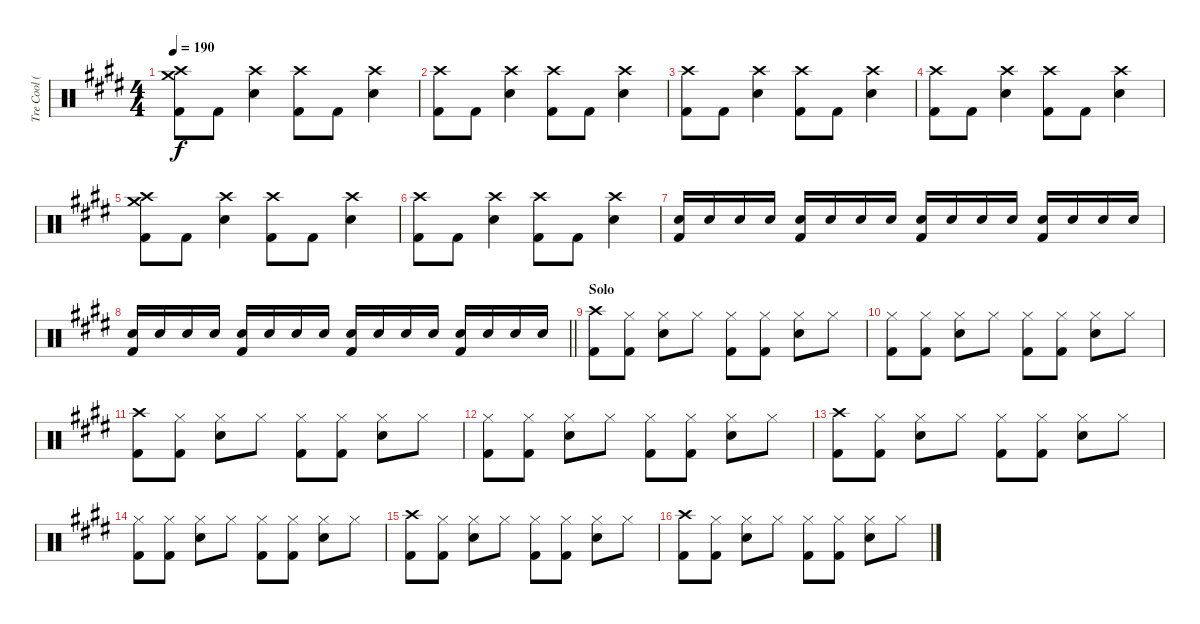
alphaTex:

\track ("Tre Cool (Drums)" "Tre Cool (") {instrument percussion}
\staff {score}
\articulation defaults
\ts (4 4)
\tempo 190
\clef neutral
\ks e
("Kick (hit) 2" "Crash medium (hit)" "Crash high (hit)").8{dy f} "Kick (hit) 2".8 ("Electric Snare (hit)" "Crash high (hit)").4 ("Kick (hit) 2" "Crash high (hit)").8 "Kick (hit) 2".8 ("Electric Snare (hit)" "Crash high (hit)").4 |
("Kick (hit) 2" "Crash high (hit)").8 "Kick (hit) 2".8 ("Electric Snare (hit)" "Crash high (hit)").4 ("Kick (hit) 2" "Crash high (hit)").8 "Kick (hit) 2".8 ("Electric Snare (hit)" "Crash high (hit)").4 |
("Kick (hit) 2" "Crash high (hit)").8 "Kick (hit) 2".8 ("Electric Snare (hit)" "Crash high (hit)").4 ("Kick (hit) 2" "Crash high (hit)").8 "Kick (hit) 2".8 ("Electric Snare (hit)" "Crash high (hit)").4 |
("Kick (hit) 2" "Crash high (hit)").8 "Kick (hit) 2".8 ("Electric Snare (hit)" "Crash high (hit)").4 ("Kick (hit) 2" "Crash high (hit)").8 "Kick (hit) 2".8 ("Electric Snare (hit)" "Crash high (hit)").4 |
("Kick (hit) 2" "Crash medium (hit)" "Crash high (hit)").8 "Kick (hit) 2".8 ("Electric Snare (hit)" "Crash high (hit)").4 ("Kick (hit) 2" "Crash high (hit)").8 "Kick (hit) 2".8 ("Electric Snare (hit)" "Crash high (hit)").4 |
("Kick (hit) 2" "Crash high (hit)").8 "Kick (hit) 2".8 ("Electric Snare (hit)" "Crash high (hit)").4 ("Kick (hit) 2" "Crash high (hit)").8 "Kick (hit) 2".8 ("Electric Snare (hit)" "Crash high (hit)").4 |
("Kick (hit) 2" "Electric Snare (hit)").16 "Electric Snare (hit)".16 "Electric Snare (hit)".16 "Electric Snare (hit)".16 ("Kick (hit) 2" "Electric Snare (hit)").16 "Electric Snare (hit)".16 "Electric Snare (hit)".16 "Electric Snare (hit)".16 ("Kick (hit) 2" "Electric Snare (hit)").16 "Electric Snare (hit)".16 "Electric Snare (hit)".16 "Electric Snare (hit)".16 ("Kick (hit) 2" "Electric Snare (hit)").16 "Electric Snare (hit)".16 "Electric Snare (hit)".16 "Electric Snare (hit)".16 |
\barLineRight lightlight
("Kick (hit) 2" "Electric Snare (hit)").16 "Electric Snare (hit)".16 "Electric Snare (hit)".16 "Electric Snare (hit)".16 ("Kick (hit) 2" "Electric Snare (hit)").16 "Electric Snare (hit)".16 "Electric Snare (hit)".16 "Electric Snare (hit)".16 ("Kick (hit) 2" "Electric Snare (hit)").16 "Electric Snare (hit)".16 "Electric Snare (hit)".16 "Electric Snare (hit)".16 ("Kick (hit) 2" "Electric Snare (hit)").16 "Electric Snare (hit)".16 "Electric Snare (hit)".16 "Electric Snare (hit)".16 |
\section ("" "Solo")
("Crash high (hit)" "Kick (hit) 2").8 ("Hi-Hat (closed)" "Kick (hit) 2").8 ("Hi-Hat (closed)" "Electric Snare (hit)").8 "Hi-Hat (closed)".8 ("Hi-Hat (closed)" "Kick (hit) 2").8 ("Hi-Hat (closed)" "Kick (hit) 2").8 ("Hi-Hat (closed)" "Electric Snare (hit)").8 "Hi-Hat (closed)".8 |
("Hi-Hat (closed)" "Kick (hit) 2").8 ("Hi-Hat (closed)" "Kick (hit) 2").8 ("Hi-Hat (closed)" "Electric Snare (hit)").8 "Hi-Hat (closed)".8 ("Hi-Hat (closed)" "Kick (hit) 2").8 ("Hi-Hat (closed)" "Kick (hit) 2").8 ("Hi-Hat (closed)" "Electric Snare (hit)").8 "Hi-Hat (closed)".8 |
("Crash high (hit)" "Kick (hit) 2").8 ("Hi-Hat (closed)" "Kick (hit) 2").8 ("Hi-Hat (closed)" "Electric Snare (hit)").8 "Hi-Hat (closed)".8 ("Hi-Hat (closed)" "Kick (hit) 2").8 ("Hi-Hat (closed)" "Kick (hit) 2").8 ("Hi-Hat (closed)" "Electric Snare (hit)").8 "Hi-Hat (closed)".8 |
("Hi-Hat (closed)" "Kick (hit) 2").8 ("Hi-Hat (closed)" "Kick (hit) 2").8 ("Hi-Hat (closed)" "Electric Snare (hit)").8 "Hi-Hat (closed)".8 ("Hi-Hat (closed)" "Kick (hit) 2").8 ("Hi-Hat (closed)" "Kick (hit) 2").8 ("Hi-Hat (closed)" "Electric Snare (hit)").8 "Hi-Hat (closed)".8 |
("Crash high (hit)" "Kick (hit) 2").8 ("Hi-Hat (closed)" "Kick (hit) 2").8 ("Hi-Hat (closed)" "Electric Snare (hit)").8 "Hi-Hat (closed)".8 ("Hi-Hat (closed)" "Kick (hit) 2").8 ("Hi-Hat (closed)" "Kick (hit) 2").8 ("Hi-Hat (closed)" "Electric Snare (hit)").8 "Hi-Hat (closed)".8 |
("Hi-Hat (closed)" "Kick (hit) 2").8 ("Hi-Hat (closed)" "Kick (hit) 2").8 ("Hi-Hat (closed)" "Electric Snare (hit)").8 "Hi-Hat (closed)".8 ("Hi-Hat (closed)" "Kick (hit) 2").8 ("Hi-Hat (closed)" "Kick (hit) 2").8 ("Hi-Hat (closed)" "Electric Snare (hit)").8 "Hi-Hat (closed)".8 |
("Crash high (hit)" "Kick (hit) 2").8 ("Hi-Hat (closed)" "Kick (hit) 2").8 ("Hi-Hat (closed)" "Electric Snare (hit)").8 "Hi-Hat (closed)".8 ("Hi-Hat (closed)" "Kick (hit) 2").8 ("Hi-Hat (closed)" "Kick (hit) 2").8 ("Hi-Hat (closed)" "Electric Snare (hit)").8 "Hi-Hat (closed)".8 |
("Crash high (hit)" "Kick (hit) 2").8 ("Hi-Hat (closed)" "Kick (hit) 2").8 ("Hi-Hat (closed)" "Electric Snare (hit)").8 "Hi-Hat (closed)".8 ("Hi-Hat (closed)" "Kick (hit) 2").8 ("Hi-Hat (closed)" "Kick (hit) 2").8 ("Hi-Hat (closed)" "Electric Snare (hit)").8 "Hi-Hat (closed)".8
